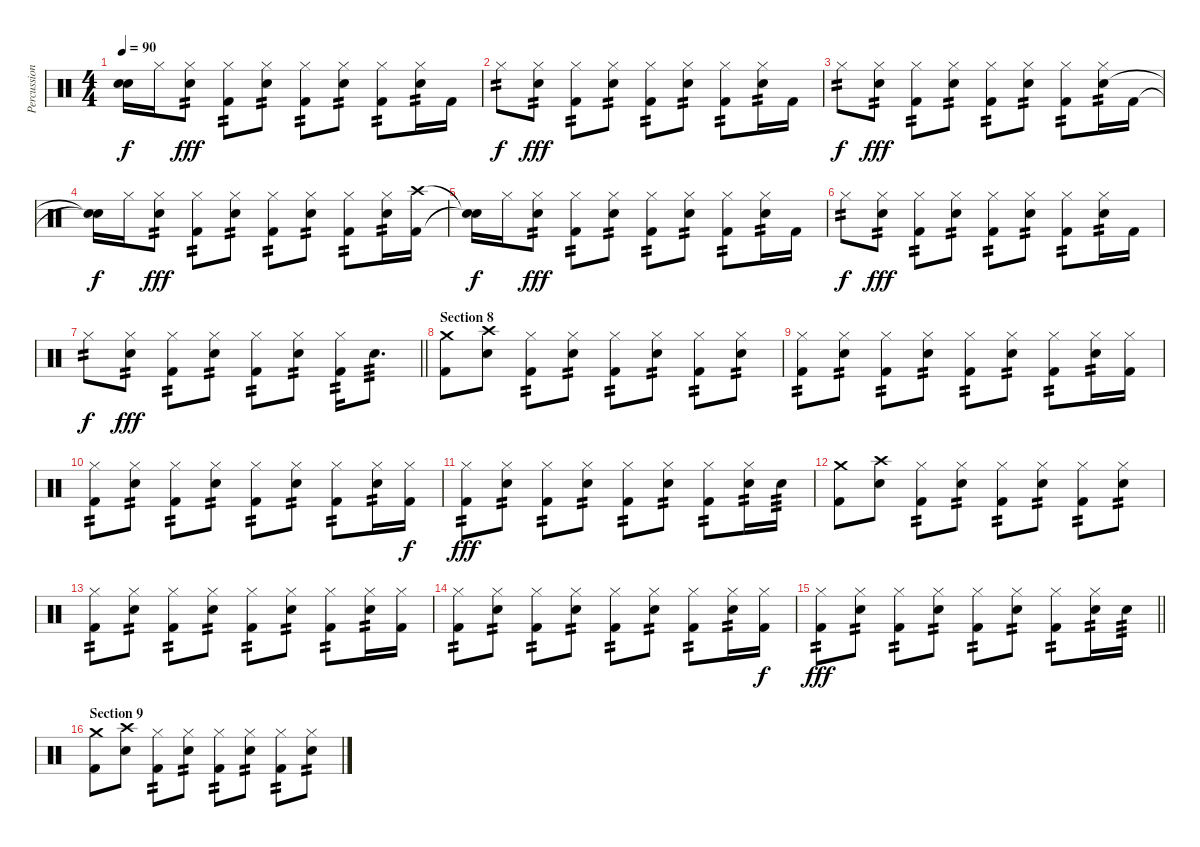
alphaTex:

\track ("Percussion" "Percussion") {instrument percussion}
\staff {score}
\articulation defaults
\ts (4 4)
\tempo 90
\clef neutral
\ks c
("Snare (hit)"{t} "Snare (hit)"{t}).16{dy f} "Hi-Hat (closed)".16 ("Hi-Hat (closed)" "Electric Snare (hit)").8{tp 2 dy fff} ("Hi-Hat (closed)" "Kick (hit) 2").8{tp 2} ("Hi-Hat (closed)" "Electric Snare (hit)").8{tp 2} ("Hi-Hat (closed)" "Kick (hit) 2").8{tp 2} ("Hi-Hat (closed)" "Electric Snare (hit)").8{tp 2} ("Hi-Hat (closed)" "Kick (hit) 2").8{tp 2} ("Hi-Hat (closed)" "Electric Snare (hit)").16{tp 2} "Kick (hit) 2".16 |
"Hi-Hat (closed)".8{tp 2 dy f} ("Hi-Hat (closed)" "Electric Snare (hit)").8{tp 2 dy fff} ("Hi-Hat (closed)" "Kick (hit) 2").8{tp 2} ("Hi-Hat (closed)" "Electric Snare (hit)").8{tp 2} ("Hi-Hat (closed)" "Kick (hit) 2").8{tp 2} ("Hi-Hat (closed)" "Electric Snare (hit)").8{tp 2} ("Hi-Hat (closed)" "Kick (hit) 2").8{tp 2} ("Hi-Hat (closed)" "Electric Snare (hit)").16{tp 2} "Kick (hit) 2".16 |
"Hi-Hat (closed)".8{tp 2 dy f} ("Hi-Hat (closed)" "Electric Snare (hit)").8{tp 2 dy fff} ("Hi-Hat (closed)" "Kick (hit) 2").8{tp 2} ("Hi-Hat (closed)" "Electric Snare (hit)").8{tp 2} ("Hi-Hat (closed)" "Kick (hit) 2").8{tp 2} ("Hi-Hat (closed)" "Electric Snare (hit)").8{tp 2} ("Hi-Hat (closed)" "Kick (hit) 2").8{tp 2} ("Hi-Hat (closed)" "Electric Snare (hit)").16{tp 2} "Kick (hit) 2".16 |
("Snare (hit)"{t} "Snare (hit)"{t}).16{dy f} "Hi-Hat (closed)".16 ("Hi-Hat (closed)" "Electric Snare (hit)").8{tp 2 dy fff} ("Hi-Hat (closed)" "Kick (hit) 2").8{tp 2} ("Hi-Hat (closed)" "Electric Snare (hit)").8{tp 2} ("Hi-Hat (closed)" "Kick (hit) 2").8{tp 2} ("Hi-Hat (closed)" "Electric Snare (hit)").8{tp 2} ("Hi-Hat (closed)" "Kick (hit) 2").8{tp 2} ("Hi-Hat (closed)" "Electric Snare (hit)").16{tp 2} ("Crash high (hit)" "Kick (hit) 2").16 |
("Snare (hit)"{t} "Snare (hit)"{t}).16{dy f} "Hi-Hat (closed)".16 ("Hi-Hat (closed)" "Electric Snare (hit)").8{tp 2 dy fff} ("Hi-Hat (closed)" "Kick (hit) 2").8{tp 2} ("Hi-Hat (closed)" "Electric Snare (hit)").8{tp 2} ("Hi-Hat (closed)" "Kick (hit) 2").8{tp 2} ("Hi-Hat (closed)" "Electric Snare (hit)").8{tp 2} ("Hi-Hat (closed)" "Kick (hit) 2").8{tp 2} ("Hi-Hat (closed)" "Electric Snare (hit)").16{tp 2} "Kick (hit) 2".16 |
"Hi-Hat (closed)".8{tp 2 dy f} ("Hi-Hat (closed)" "Electric Snare (hit)").8{tp 2 dy fff} ("Hi-Hat (closed)" "Kick (hit) 2").8{tp 2} ("Hi-Hat (closed)" "Electric Snare (hit)").8{tp 2} ("Hi-Hat (closed)" "Kick (hit) 2").8{tp 2} ("Hi-Hat (closed)" "Electric Snare (hit)").8{tp 2} ("Hi-Hat (closed)" "Kick (hit) 2").8{tp 2} ("Hi-Hat (closed)" "Electric Snare (hit)").16{tp 2} "Kick (hit) 2".16 |
\barLineRight lightlight "Hi-Hat (closed)".8{tp 2 dy f}
("Hi-Hat (closed)" "Electric Snare (hit)").8{tp 2 dy fff} ("Hi-Hat (closed)" "Kick (hit) 2").8{tp 2} ("Hi-Hat (closed)" "Electric Snare (hit)").8{tp 2} ("Hi-Hat (closed)" "Kick (hit) 2").8{tp 2} ("Hi-Hat (closed)" "Electric Snare (hit)").8{tp 2} ("Hi-Hat (closed)" "Kick (hit) 2").16{tp 2} "Electric Snare (hit)".8{d tp 3} |
\section ("" "Section 8")
("Crash medium (hit)" "Kick (hit) 2").8 ("Crash high (hit)" "Electric Snare (hit)").8 ("Hi-Hat (closed)" "Kick (hit) 2").8{tp 2} ("Hi-Hat (closed)" "Electric Snare (hit)").8{tp 2} ("Hi-Hat (closed)" "Kick (hit) 2").8{tp 2} ("Hi-Hat (closed)" "Electric Snare (hit)").8{tp 2} ("Hi-Hat (closed)" "Kick (hit) 2").8{tp 2} ("Hi-Hat (closed)" "Electric Snare (hit)").8{tp 2} |
("Hi-Hat (closed)" "Kick (hit) 2").8{tp 2} ("Hi-Hat (closed)" "Electric Snare (hit)").8{tp 2} ("Hi-Hat (closed)" "Kick (hit) 2").8{tp 2} ("Hi-Hat (closed)" "Electric Snare (hit)").8{tp 2} ("Hi-Hat (closed)" "Kick (hit) 2").8{tp 2} ("Hi-Hat (closed)" "Electric Snare (hit)").8{tp 2} ("Hi-Hat (closed)" "Kick (hit) 2").8{tp 2} ("Hi-Hat (closed)" "Electric Snare (hit)").16{tp 2} ("Hi-Hat (closed)" "Kick (hit) 2").16 |
("Hi-Hat (closed)" "Kick (hit) 2").8{tp 2} ("Hi-Hat (closed)" "Electric Snare (hit)").8{tp 2} ("Hi-Hat (closed)" "Kick (hit) 2").8{tp 2} ("Hi-Hat (closed)" "Electric Snare (hit)").8{tp 2} ("Hi-Hat (closed)" "Kick (hit) 2").8{tp 2} ("Hi-Hat (closed)" "Electric Snare (hit)").8{tp 2} ("Hi-Hat (closed)" "Kick (hit) 2").8{tp 2} ("Hi-Hat (closed)" "Electric Snare (hit)").16{tp 2} ("Hi-Hat (closed)" "Kick (hit) 2").16{dy f} |
("Hi-Hat (closed)" "Kick (hit) 2").8{tp 2 dy fff} ("Hi-Hat (closed)" "Electric Snare (hit)").8{tp 2} ("Hi-Hat (closed)" "Kick (hit) 2").8{tp 2} ("Hi-Hat (closed)" "Electric Snare (hit)").8{tp 2} ("Hi-Hat (closed)" "Kick (hit) 2").8{tp 2} ("Hi-Hat (closed)" "Electric Snare (hit)").8{tp 2} ("Hi-Hat (closed)" "Kick (hit) 2").8{tp 2} ("Hi-Hat (closed)" "Electric Snare (hit)").16{tp 2} "Electric Snare (hit)".16{tp 3} |
("Crash medium (hit)" "Kick (hit) 2").8 ("Crash high (hit)" "Electric Snare (hit)").8 ("Hi-Hat (closed)" "Kick (hit) 2").8{tp 2} ("Hi-Hat (closed)" "Electric Snare (hit)").8{tp 2} ("Hi-Hat (closed)" "Kick (hit) 2").8{tp 2} ("Hi-Hat (closed)" "Electric Snare (hit)").8{tp 2} ("Hi-Hat (closed)" "Kick (hit) 2").8{tp 2} ("Hi-Hat (closed)" "Electric Snare (hit)").8{tp 2} |
("Hi-Hat (closed)" "Kick (hit) 2").8{tp 2} ("Hi-Hat (closed)" "Electric Snare (hit)").8{tp 2} ("Hi-Hat (closed)" "Kick (hit) 2").8{tp 2} ("Hi-Hat (closed)" "Electric Snare (hit)").8{tp 2} ("Hi-Hat (closed)" "Kick (hit) 2").8{tp 2} ("Hi-Hat (closed)" "Electric Snare (hit)").8{tp 2} ("Hi-Hat (closed)" "Kick (hit) 2").8{tp 2} ("Hi-Hat (closed)" "Electric Snare (hit)").16{tp 2} ("Hi-Hat (closed)" "Kick (hit) 2").16 |
("Hi-Hat (closed)" "Kick (hit) 2").8{tp 2} ("Hi-Hat (closed)" "Electric Snare (hit)").8{tp 2} ("Hi-Hat (closed)" "Kick (hit) 2").8{tp 2} ("Hi-Hat (closed)" "Electric Snare (hit)").8{tp 2} ("Hi-Hat (closed)" "Kick (hit) 2").8{tp 2} ("Hi-Hat (closed)" "Electric Snare (hit)").8{tp 2} ("Hi-Hat (closed)" "Kick (hit) 2").8{tp 2} ("Hi-Hat (closed)" "Electric Snare (hit)").16{tp 2} ("Hi-Hat (closed)" "Kick (hit) 2").16{dy f} |
\barLineRight lightlight
("Hi-Hat (closed)" "Kick (hit) 2").8{tp 2 dy fff} ("Hi-Hat (closed)" "Electric Snare (hit)").8{tp 2} ("Hi-Hat (closed)" "Kick (hit) 2").8{tp 2} ("Hi-Hat (closed)" "Electric Snare (hit)").8{tp 2} ("Hi-Hat (closed)" "Kick (hit) 2").8{tp 2} ("Hi-Hat (closed)" "Electric Snare (hit)").8{tp 2} ("Hi-Hat (closed)" "Kick (hit) 2").8{tp 2} ("Hi-Hat (closed)" "Electric Snare (hit)").16{tp 2} "Electric Snare (hit)".16{tp 3} |
\section ("" "Section 9")
("Crash medium (hit)" "Kick (hit) 2").8 ("Crash high (hit)" "Electric Snare (hit)").8 ("Hi-Hat (closed)" "Kick (hit) 2").8{tp 2} ("Hi-Hat (closed)" "Electric Snare (hit)").8{tp 2} ("Hi-Hat (closed)" "Kick (hit) 2").8{tp 2} ("Hi-Hat (closed)" "Electric Snare (hit)").8{tp 2} ("Hi-Hat (closed)" "Kick (hit) 2").8{tp 2} ("Hi-Hat (closed)" "Electric Snare (hit)").8{tp 2}
